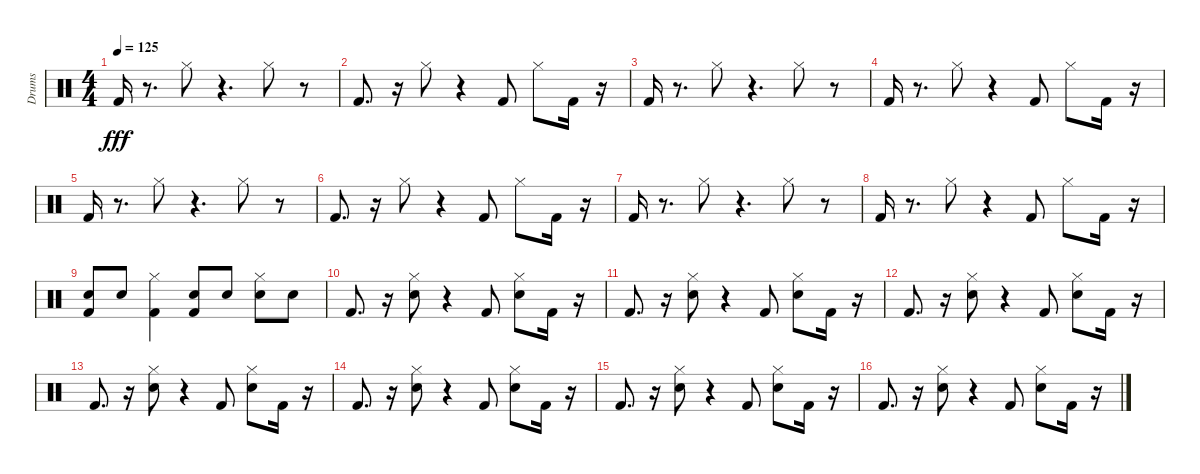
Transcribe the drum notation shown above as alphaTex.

\track ("Drums" "Drums") {instrument percussion}
\staff {score}
\articulation defaults
\ts (4 4)
\tempo 125
\clef neutral
\ks c "Kick (hit) 2".16{dy fff}
r.8{d} "Hi-Hat (closed)".8 r.4{d} "Hi-Hat (closed)".8 r.8 |
"Kick (hit) 2".8{d} r.16 "Hi-Hat (closed)".8 r.4 "Kick (hit) 2".8 "Hi-Hat (closed)".8 "Kick (hit) 2".16 r.16 |
"Kick (hit) 2".16 r.8{d} "Hi-Hat (closed)".8 r.4{d} "Hi-Hat (closed)".8 r.8 |
"Kick (hit) 2".16 r.8{d} "Hi-Hat (closed)".8 r.4 "Kick (hit) 2".8 "Hi-Hat (closed)".8 "Kick (hit) 2".16 r.16 |
"Kick (hit) 2".16 r.8{d} "Hi-Hat (closed)".8 r.4{d} "Hi-Hat (closed)".8 r.8 |
"Kick (hit) 2".8{d} r.16 "Hi-Hat (closed)".8 r.4 "Kick (hit) 2".8 "Hi-Hat (closed)".8 "Kick (hit) 2".16 r.16 |
"Kick (hit) 2".16 r.8{d} "Hi-Hat (closed)".8 r.4{d} "Hi-Hat (closed)".8 r.8 |
"Kick (hit) 2".16 r.8{d} "Hi-Hat (closed)".8 r.4 "Kick (hit) 2".8 "Hi-Hat (closed)".8 "Kick (hit) 2".16 r.16 |
("Kick (hit) 2" "Snare (hit) 2").8 "Snare (hit) 2".8 ("Kick (hit) 2" "Hi-Hat (closed)").4 ("Kick (hit) 2" "Snare (hit) 2").8 "Snare (hit) 2".8 ("Hi-Hat (closed)" "Snare (hit) 2").8 "Snare (hit) 2".8 |
"Kick (hit) 2".8{d} r.16 ("Hi-Hat (closed)" "Snare (hit) 2").8 r.4 "Kick (hit) 2".8 ("Hi-Hat (closed)" "Snare (hit) 2").8 "Kick (hit) 2".16 r.16 |
"Kick (hit) 2".8{d} r.16 ("Hi-Hat (closed)" "Snare (hit) 2").8 r.4 "Kick (hit) 2".8 ("Hi-Hat (closed)" "Snare (hit) 2").8 "Kick (hit) 2".16 r.16 |
"Kick (hit) 2".8{d} r.16 ("Hi-Hat (closed)" "Snare (hit) 2").8 r.4 "Kick (hit) 2".8 ("Hi-Hat (closed)" "Snare (hit) 2").8 "Kick (hit) 2".16 r.16 |
"Kick (hit) 2".8{d} r.16 ("Hi-Hat (closed)" "Snare (hit) 2").8 r.4 "Kick (hit) 2".8 ("Hi-Hat (closed)" "Snare (hit) 2").8 "Kick (hit) 2".16 r.16 |
"Kick (hit) 2".8{d} r.16 ("Hi-Hat (closed)" "Snare (hit) 2").8 r.4 "Kick (hit) 2".8 ("Hi-Hat (closed)" "Snare (hit) 2").8 "Kick (hit) 2".16 r.16 |
"Kick (hit) 2".8{d} r.16 ("Hi-Hat (closed)" "Snare (hit) 2").8 r.4 "Kick (hit) 2".8 ("Hi-Hat (closed)" "Snare (hit) 2").8 "Kick (hit) 2".16 r.16 |
"Kick (hit) 2".8{d} r.16 ("Hi-Hat (closed)" "Snare (hit) 2").8 r.4 "Kick (hit) 2".8 ("Hi-Hat (closed)" "Snare (hit) 2").8 "Kick (hit) 2".16 r.16
